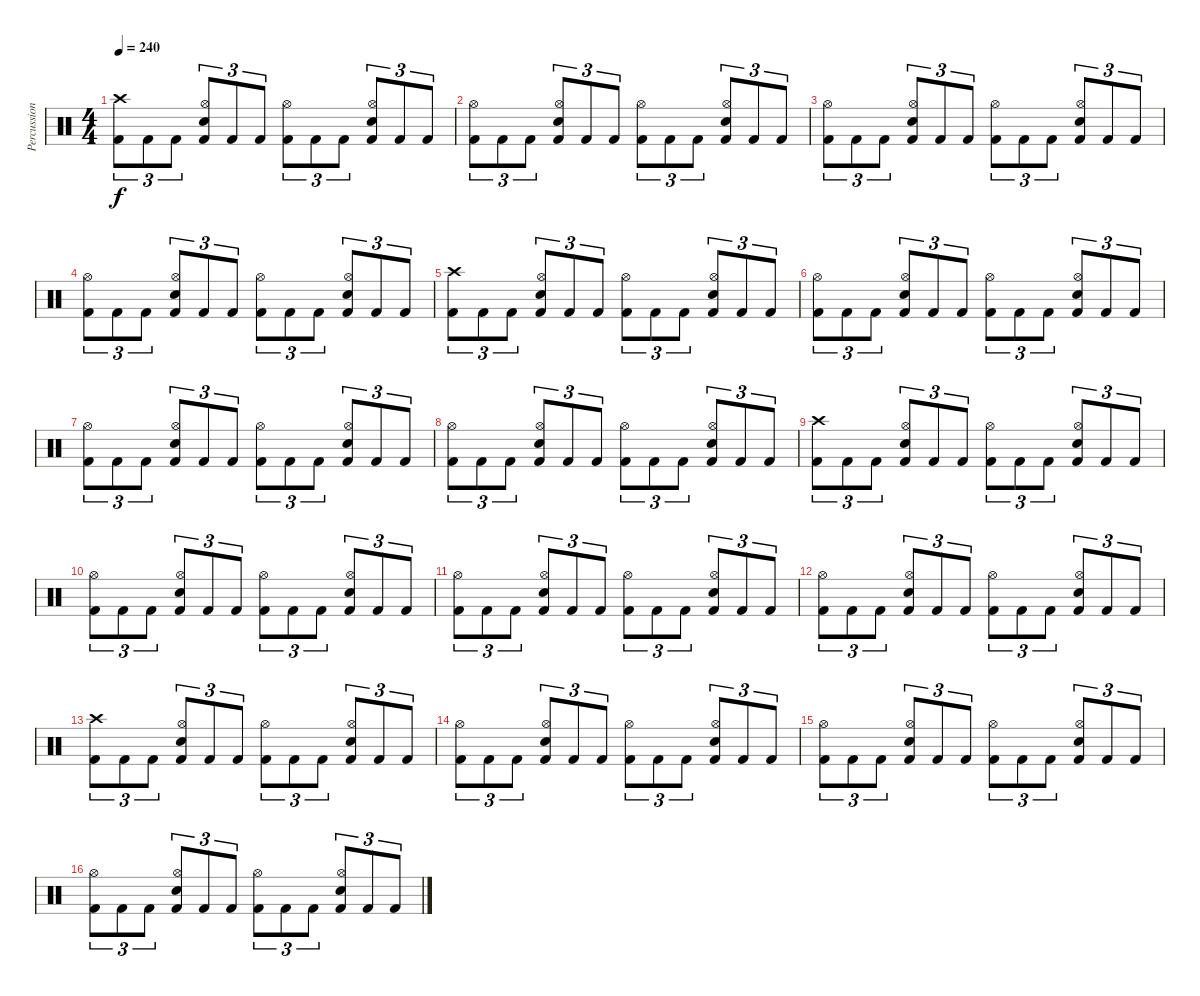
\track ("Percussion" "Percussion") {instrument percussion}
\staff {score}
\articulation defaults
\ts (4 4)
\tempo 240
\clef neutral
\ks c
("Kick (hit) 2" "Crash high (hit)").8{tu (3 2) dy f} "Kick (hit) 2".8{tu (3 2)} "Kick (hit) 2".8{tu (3 2)} ("Kick (hit) 2" "Hi-Hat (open)" "Electric Snare (hit)").8{tu (3 2)} "Kick (hit) 2".8{tu (3 2)} "Kick (hit) 2".8{tu (3 2)} ("Kick (hit) 2" "Hi-Hat (open)").8{tu (3 2)} "Kick (hit) 2".8{tu (3 2)} "Kick (hit) 2".8{tu (3 2)} ("Kick (hit) 2" "Hi-Hat (open)" "Electric Snare (hit)").8{tu (3 2)} "Kick (hit) 2".8{tu (3 2)} "Kick (hit) 2".8{tu (3 2)} |
("Kick (hit) 2" "Hi-Hat (open)").8{tu (3 2)} "Kick (hit) 2".8{tu (3 2)} "Kick (hit) 2".8{tu (3 2)} ("Kick (hit) 2" "Hi-Hat (open)" "Electric Snare (hit)").8{tu (3 2)} "Kick (hit) 2".8{tu (3 2)} "Kick (hit) 2".8{tu (3 2)} ("Kick (hit) 2" "Hi-Hat (open)").8{tu (3 2)} "Kick (hit) 2".8{tu (3 2)} "Kick (hit) 2".8{tu (3 2)} ("Kick (hit) 2" "Hi-Hat (open)" "Electric Snare (hit)").8{tu (3 2)} "Kick (hit) 2".8{tu (3 2)} "Kick (hit) 2".8{tu (3 2)} |
("Kick (hit) 2" "Hi-Hat (open)").8{tu (3 2)} "Kick (hit) 2".8{tu (3 2)} "Kick (hit) 2".8{tu (3 2)} ("Kick (hit) 2" "Hi-Hat (open)" "Electric Snare (hit)").8{tu (3 2)} "Kick (hit) 2".8{tu (3 2)} "Kick (hit) 2".8{tu (3 2)} ("Kick (hit) 2" "Hi-Hat (open)").8{tu (3 2)} "Kick (hit) 2".8{tu (3 2)} "Kick (hit) 2".8{tu (3 2)} ("Kick (hit) 2" "Hi-Hat (open)" "Electric Snare (hit)").8{tu (3 2)} "Kick (hit) 2".8{tu (3 2)} "Kick (hit) 2".8{tu (3 2)} |
("Kick (hit) 2" "Hi-Hat (open)").8{tu (3 2)} "Kick (hit) 2".8{tu (3 2)} "Kick (hit) 2".8{tu (3 2)} ("Kick (hit) 2" "Hi-Hat (open)" "Electric Snare (hit)").8{tu (3 2)} "Kick (hit) 2".8{tu (3 2)} "Kick (hit) 2".8{tu (3 2)} ("Kick (hit) 2" "Hi-Hat (open)").8{tu (3 2)} "Kick (hit) 2".8{tu (3 2)} "Kick (hit) 2".8{tu (3 2)} ("Kick (hit) 2" "Hi-Hat (open)" "Electric Snare (hit)").8{tu (3 2)} "Kick (hit) 2".8{tu (3 2)} "Kick (hit) 2".8{tu (3 2)} |
("Kick (hit) 2" "Crash high (hit)").8{tu (3 2)} "Kick (hit) 2".8{tu (3 2)} "Kick (hit) 2".8{tu (3 2)} ("Kick (hit) 2" "Hi-Hat (open)" "Electric Snare (hit)").8{tu (3 2)} "Kick (hit) 2".8{tu (3 2)} "Kick (hit) 2".8{tu (3 2)} ("Kick (hit) 2" "Hi-Hat (open)").8{tu (3 2)} "Kick (hit) 2".8{tu (3 2)} "Kick (hit) 2".8{tu (3 2)} ("Kick (hit) 2" "Hi-Hat (open)" "Electric Snare (hit)").8{tu (3 2)} "Kick (hit) 2".8{tu (3 2)} "Kick (hit) 2".8{tu (3 2)} |
("Kick (hit) 2" "Hi-Hat (open)").8{tu (3 2)} "Kick (hit) 2".8{tu (3 2)} "Kick (hit) 2".8{tu (3 2)} ("Kick (hit) 2" "Hi-Hat (open)" "Electric Snare (hit)").8{tu (3 2)} "Kick (hit) 2".8{tu (3 2)} "Kick (hit) 2".8{tu (3 2)} ("Kick (hit) 2" "Hi-Hat (open)").8{tu (3 2)} "Kick (hit) 2".8{tu (3 2)} "Kick (hit) 2".8{tu (3 2)} ("Kick (hit) 2" "Hi-Hat (open)" "Electric Snare (hit)").8{tu (3 2)} "Kick (hit) 2".8{tu (3 2)} "Kick (hit) 2".8{tu (3 2)} |
("Kick (hit) 2" "Hi-Hat (open)").8{tu (3 2)} "Kick (hit) 2".8{tu (3 2)} "Kick (hit) 2".8{tu (3 2)} ("Kick (hit) 2" "Hi-Hat (open)" "Electric Snare (hit)").8{tu (3 2)} "Kick (hit) 2".8{tu (3 2)} "Kick (hit) 2".8{tu (3 2)} ("Kick (hit) 2" "Hi-Hat (open)").8{tu (3 2)} "Kick (hit) 2".8{tu (3 2)} "Kick (hit) 2".8{tu (3 2)} ("Kick (hit) 2" "Hi-Hat (open)" "Electric Snare (hit)").8{tu (3 2)} "Kick (hit) 2".8{tu (3 2)} "Kick (hit) 2".8{tu (3 2)} |
("Kick (hit) 2" "Hi-Hat (open)").8{tu (3 2)} "Kick (hit) 2".8{tu (3 2)} "Kick (hit) 2".8{tu (3 2)} ("Kick (hit) 2" "Hi-Hat (open)" "Electric Snare (hit)").8{tu (3 2)} "Kick (hit) 2".8{tu (3 2)} "Kick (hit) 2".8{tu (3 2)} ("Kick (hit) 2" "Hi-Hat (open)").8{tu (3 2)} "Kick (hit) 2".8{tu (3 2)} "Kick (hit) 2".8{tu (3 2)} ("Kick (hit) 2" "Hi-Hat (open)" "Electric Snare (hit)").8{tu (3 2)} "Kick (hit) 2".8{tu (3 2)} "Kick (hit) 2".8{tu (3 2)} |
("Kick (hit) 2" "Crash high (hit)").8{tu (3 2)} "Kick (hit) 2".8{tu (3 2)} "Kick (hit) 2".8{tu (3 2)} ("Kick (hit) 2" "Hi-Hat (open)" "Electric Snare (hit)").8{tu (3 2)} "Kick (hit) 2".8{tu (3 2)} "Kick (hit) 2".8{tu (3 2)} ("Kick (hit) 2" "Hi-Hat (open)").8{tu (3 2)} "Kick (hit) 2".8{tu (3 2)} "Kick (hit) 2".8{tu (3 2)} ("Kick (hit) 2" "Hi-Hat (open)" "Electric Snare (hit)").8{tu (3 2)} "Kick (hit) 2".8{tu (3 2)} "Kick (hit) 2".8{tu (3 2)} |
("Kick (hit) 2" "Hi-Hat (open)").8{tu (3 2)} "Kick (hit) 2".8{tu (3 2)} "Kick (hit) 2".8{tu (3 2)} ("Kick (hit) 2" "Hi-Hat (open)" "Electric Snare (hit)").8{tu (3 2)} "Kick (hit) 2".8{tu (3 2)} "Kick (hit) 2".8{tu (3 2)} ("Kick (hit) 2" "Hi-Hat (open)").8{tu (3 2)} "Kick (hit) 2".8{tu (3 2)} "Kick (hit) 2".8{tu (3 2)} ("Kick (hit) 2" "Hi-Hat (open)" "Electric Snare (hit)").8{tu (3 2)} "Kick (hit) 2".8{tu (3 2)} "Kick (hit) 2".8{tu (3 2)} |
("Kick (hit) 2" "Hi-Hat (open)").8{tu (3 2)} "Kick (hit) 2".8{tu (3 2)} "Kick (hit) 2".8{tu (3 2)} ("Kick (hit) 2" "Hi-Hat (open)" "Electric Snare (hit)").8{tu (3 2)} "Kick (hit) 2".8{tu (3 2)} "Kick (hit) 2".8{tu (3 2)} ("Kick (hit) 2" "Hi-Hat (open)").8{tu (3 2)} "Kick (hit) 2".8{tu (3 2)} "Kick (hit) 2".8{tu (3 2)} ("Kick (hit) 2" "Hi-Hat (open)" "Electric Snare (hit)").8{tu (3 2)} "Kick (hit) 2".8{tu (3 2)} "Kick (hit) 2".8{tu (3 2)} |
("Kick (hit) 2" "Hi-Hat (open)").8{tu (3 2)} "Kick (hit) 2".8{tu (3 2)} "Kick (hit) 2".8{tu (3 2)} ("Kick (hit) 2" "Hi-Hat (open)" "Electric Snare (hit)").8{tu (3 2)} "Kick (hit) 2".8{tu (3 2)} "Kick (hit) 2".8{tu (3 2)} ("Kick (hit) 2" "Hi-Hat (open)").8{tu (3 2)} "Kick (hit) 2".8{tu (3 2)} "Kick (hit) 2".8{tu (3 2)} ("Kick (hit) 2" "Hi-Hat (open)" "Electric Snare (hit)").8{tu (3 2)} "Kick (hit) 2".8{tu (3 2)} "Kick (hit) 2".8{tu (3 2)} |
("Kick (hit) 2" "Crash high (hit)").8{tu (3 2)} "Kick (hit) 2".8{tu (3 2)} "Kick (hit) 2".8{tu (3 2)} ("Kick (hit) 2" "Hi-Hat (open)" "Electric Snare (hit)").8{tu (3 2)} "Kick (hit) 2".8{tu (3 2)} "Kick (hit) 2".8{tu (3 2)} ("Kick (hit) 2" "Hi-Hat (open)").8{tu (3 2)} "Kick (hit) 2".8{tu (3 2)} "Kick (hit) 2".8{tu (3 2)} ("Kick (hit) 2" "Hi-Hat (open)" "Electric Snare (hit)").8{tu (3 2)} "Kick (hit) 2".8{tu (3 2)} "Kick (hit) 2".8{tu (3 2)} |
("Kick (hit) 2" "Hi-Hat (open)").8{tu (3 2)} "Kick (hit) 2".8{tu (3 2)} "Kick (hit) 2".8{tu (3 2)} ("Kick (hit) 2" "Hi-Hat (open)" "Electric Snare (hit)").8{tu (3 2)} "Kick (hit) 2".8{tu (3 2)} "Kick (hit) 2".8{tu (3 2)} ("Kick (hit) 2" "Hi-Hat (open)").8{tu (3 2)} "Kick (hit) 2".8{tu (3 2)} "Kick (hit) 2".8{tu (3 2)} ("Kick (hit) 2" "Hi-Hat (open)" "Electric Snare (hit)").8{tu (3 2)} "Kick (hit) 2".8{tu (3 2)} "Kick (hit) 2".8{tu (3 2)} |
("Kick (hit) 2" "Hi-Hat (open)").8{tu (3 2)} "Kick (hit) 2".8{tu (3 2)} "Kick (hit) 2".8{tu (3 2)} ("Kick (hit) 2" "Hi-Hat (open)" "Electric Snare (hit)").8{tu (3 2)} "Kick (hit) 2".8{tu (3 2)} "Kick (hit) 2".8{tu (3 2)} ("Kick (hit) 2" "Hi-Hat (open)").8{tu (3 2)} "Kick (hit) 2".8{tu (3 2)} "Kick (hit) 2".8{tu (3 2)} ("Kick (hit) 2" "Hi-Hat (open)" "Electric Snare (hit)").8{tu (3 2)} "Kick (hit) 2".8{tu (3 2)} "Kick (hit) 2".8{tu (3 2)} |
("Kick (hit) 2" "Hi-Hat (open)").8{tu (3 2)} "Kick (hit) 2".8{tu (3 2)} "Kick (hit) 2".8{tu (3 2)} ("Kick (hit) 2" "Hi-Hat (open)" "Electric Snare (hit)").8{tu (3 2)} "Kick (hit) 2".8{tu (3 2)} "Kick (hit) 2".8{tu (3 2)} ("Kick (hit) 2" "Hi-Hat (open)").8{tu (3 2)} "Kick (hit) 2".8{tu (3 2)} "Kick (hit) 2".8{tu (3 2)} ("Kick (hit) 2" "Hi-Hat (open)" "Electric Snare (hit)").8{tu (3 2)} "Kick (hit) 2".8{tu (3 2)} "Kick (hit) 2".8{tu (3 2)}
